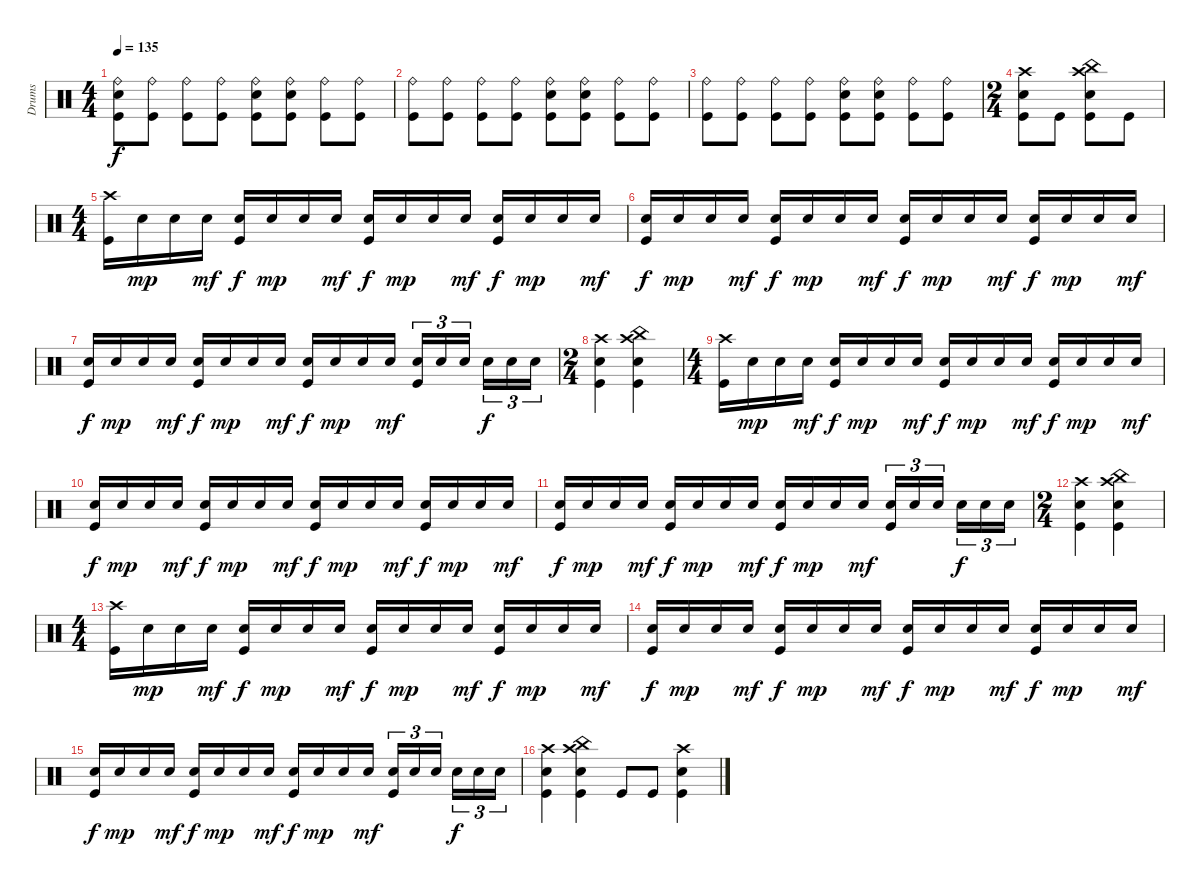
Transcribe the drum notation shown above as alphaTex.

\track ("Drums" "Drums") {instrument percussion}
\staff {score}
\articulation defaults
\ts (4 4)
\tempo 135
\clef neutral
\ks c
("Ride (bell)" "Electric Snare (hit)" "Kick (hit)").8{dy f} ("Ride (bell)" "Kick (hit)").8 ("Ride (bell)" "Kick (hit)").8 ("Ride (bell)" "Kick (hit)").8 ("Ride (bell)" "Electric Snare (hit)" "Kick (hit)").8 ("Ride (bell)" "Electric Snare (hit)" "Kick (hit)").8 ("Ride (bell)" "Kick (hit)").8 ("Ride (bell)" "Kick (hit)").8 |
("Ride (bell)" "Kick (hit)").8 ("Ride (bell)" "Kick (hit)").8 ("Ride (bell)" "Kick (hit)").8 ("Ride (bell)" "Kick (hit)").8 ("Ride (bell)" "Electric Snare (hit)" "Kick (hit)").8 ("Ride (bell)" "Electric Snare (hit)" "Kick (hit)").8 ("Ride (bell)" "Kick (hit)").8 ("Ride (bell)" "Kick (hit)").8 |
("Ride (bell)" "Kick (hit)").8 ("Ride (bell)" "Kick (hit)").8 ("Ride (bell)" "Kick (hit)").8 ("Ride (bell)" "Kick (hit)").8 ("Ride (bell)" "Electric Snare (hit)" "Kick (hit)").8 ("Ride (bell)" "Electric Snare (hit)" "Kick (hit)").8 ("Ride (bell)" "Kick (hit)").8 ("Ride (bell)" "Kick (hit)").8 |
\ts (2 4)
("Crash high (hit)" "Electric Snare (hit)" "Kick (hit)").8 "Kick (hit)".8 ("Crash high (hit)" "China (hit)" "Electric Snare (hit)" "Kick (hit)").8 "Kick (hit)".8 |
\ts (4 4)
("Crash high (hit)" "Kick (hit)").16 "Electric Snare (hit)".16{dy mp} "Electric Snare (hit)".16 "Electric Snare (hit)".16{dy mf} ("Electric Snare (hit)" "Kick (hit)").16{dy f} "Electric Snare (hit)".16{dy mp} "Electric Snare (hit)".16 "Electric Snare (hit)".16{dy mf} ("Electric Snare (hit)" "Kick (hit)").16{dy f} "Electric Snare (hit)".16{dy mp} "Electric Snare (hit)".16 "Electric Snare (hit)".16{dy mf} ("Electric Snare (hit)" "Kick (hit)").16{dy f} "Electric Snare (hit)".16{dy mp} "Electric Snare (hit)".16 "Electric Snare (hit)".16{dy mf} |
("Electric Snare (hit)" "Kick (hit)").16{dy f} "Electric Snare (hit)".16{dy mp} "Electric Snare (hit)".16 "Electric Snare (hit)".16{dy mf} ("Electric Snare (hit)" "Kick (hit)").16{dy f} "Electric Snare (hit)".16{dy mp} "Electric Snare (hit)".16 "Electric Snare (hit)".16{dy mf} ("Electric Snare (hit)" "Kick (hit)").16{dy f} "Electric Snare (hit)".16{dy mp} "Electric Snare (hit)".16 "Electric Snare (hit)".16{dy mf} ("Electric Snare (hit)" "Kick (hit)").16{dy f} "Electric Snare (hit)".16{dy mp} "Electric Snare (hit)".16 "Electric Snare (hit)".16{dy mf} |
("Electric Snare (hit)" "Kick (hit)").16{dy f} "Electric Snare (hit)".16{dy mp} "Electric Snare (hit)".16 "Electric Snare (hit)".16{dy mf} ("Electric Snare (hit)" "Kick (hit)").16{dy f} "Electric Snare (hit)".16{dy mp} "Electric Snare (hit)".16 "Electric Snare (hit)".16{dy mf} ("Electric Snare (hit)" "Kick (hit)").16{dy f} "Electric Snare (hit)".16{dy mp} "Electric Snare (hit)".16 "Electric Snare (hit)".16{dy mf} ("Electric Snare (hit)" "Kick (hit)").16{tu (3 2)} "Electric Snare (hit)".16{tu (3 2)} "Electric Snare (hit)".16{tu (3 2)} "Electric Snare (hit)".16{tu (3 2) dy f} "Electric Snare (hit)".16{tu (3 2)} "Electric Snare (hit)".16{tu (3 2)} |
\ts (2 4)
("Crash high (hit)" "Electric Snare (hit)" "Kick (hit)").4 ("Crash high (hit)" "China (hit)" "Electric Snare (hit)" "Kick (hit)").4 |
\ts (4 4)
("Crash high (hit)" "Kick (hit)").16 "Electric Snare (hit)".16{dy mp} "Electric Snare (hit)".16 "Electric Snare (hit)".16{dy mf} ("Electric Snare (hit)" "Kick (hit)").16{dy f} "Electric Snare (hit)".16{dy mp} "Electric Snare (hit)".16 "Electric Snare (hit)".16{dy mf} ("Electric Snare (hit)" "Kick (hit)").16{dy f} "Electric Snare (hit)".16{dy mp} "Electric Snare (hit)".16 "Electric Snare (hit)".16{dy mf} ("Electric Snare (hit)" "Kick (hit)").16{dy f} "Electric Snare (hit)".16{dy mp} "Electric Snare (hit)".16 "Electric Snare (hit)".16{dy mf} |
("Electric Snare (hit)" "Kick (hit)").16{dy f} "Electric Snare (hit)".16{dy mp} "Electric Snare (hit)".16 "Electric Snare (hit)".16{dy mf} ("Electric Snare (hit)" "Kick (hit)").16{dy f} "Electric Snare (hit)".16{dy mp} "Electric Snare (hit)".16 "Electric Snare (hit)".16{dy mf} ("Electric Snare (hit)" "Kick (hit)").16{dy f} "Electric Snare (hit)".16{dy mp} "Electric Snare (hit)".16 "Electric Snare (hit)".16{dy mf} ("Electric Snare (hit)" "Kick (hit)").16{dy f} "Electric Snare (hit)".16{dy mp} "Electric Snare (hit)".16 "Electric Snare (hit)".16{dy mf} |
("Electric Snare (hit)" "Kick (hit)").16{dy f} "Electric Snare (hit)".16{dy mp} "Electric Snare (hit)".16 "Electric Snare (hit)".16{dy mf} ("Electric Snare (hit)" "Kick (hit)").16{dy f} "Electric Snare (hit)".16{dy mp} "Electric Snare (hit)".16 "Electric Snare (hit)".16{dy mf} ("Electric Snare (hit)" "Kick (hit)").16{dy f} "Electric Snare (hit)".16{dy mp} "Electric Snare (hit)".16 "Electric Snare (hit)".16{dy mf} ("Electric Snare (hit)" "Kick (hit)").16{tu (3 2)} "Electric Snare (hit)".16{tu (3 2)} "Electric Snare (hit)".16{tu (3 2)} "Electric Snare (hit)".16{tu (3 2) dy f} "Electric Snare (hit)".16{tu (3 2)} "Electric Snare (hit)".16{tu (3 2)} |
\ts (2 4)
("Crash high (hit)" "Electric Snare (hit)" "Kick (hit)").4 ("Crash high (hit)" "China (hit)" "Electric Snare (hit)" "Kick (hit)").4 |
\ts (4 4)
("Crash high (hit)" "Kick (hit)").16 "Electric Snare (hit)".16{dy mp} "Electric Snare (hit)".16 "Electric Snare (hit)".16{dy mf} ("Electric Snare (hit)" "Kick (hit)").16{dy f} "Electric Snare (hit)".16{dy mp} "Electric Snare (hit)".16 "Electric Snare (hit)".16{dy mf} ("Electric Snare (hit)" "Kick (hit)").16{dy f} "Electric Snare (hit)".16{dy mp} "Electric Snare (hit)".16 "Electric Snare (hit)".16{dy mf} ("Electric Snare (hit)" "Kick (hit)").16{dy f} "Electric Snare (hit)".16{dy mp} "Electric Snare (hit)".16 "Electric Snare (hit)".16{dy mf} |
("Electric Snare (hit)" "Kick (hit)").16{dy f} "Electric Snare (hit)".16{dy mp} "Electric Snare (hit)".16 "Electric Snare (hit)".16{dy mf} ("Electric Snare (hit)" "Kick (hit)").16{dy f} "Electric Snare (hit)".16{dy mp} "Electric Snare (hit)".16 "Electric Snare (hit)".16{dy mf} ("Electric Snare (hit)" "Kick (hit)").16{dy f} "Electric Snare (hit)".16{dy mp} "Electric Snare (hit)".16 "Electric Snare (hit)".16{dy mf} ("Electric Snare (hit)" "Kick (hit)").16{dy f} "Electric Snare (hit)".16{dy mp} "Electric Snare (hit)".16 "Electric Snare (hit)".16{dy mf} |
("Electric Snare (hit)" "Kick (hit)").16{dy f} "Electric Snare (hit)".16{dy mp} "Electric Snare (hit)".16 "Electric Snare (hit)".16{dy mf} ("Electric Snare (hit)" "Kick (hit)").16{dy f} "Electric Snare (hit)".16{dy mp} "Electric Snare (hit)".16 "Electric Snare (hit)".16{dy mf} ("Electric Snare (hit)" "Kick (hit)").16{dy f} "Electric Snare (hit)".16{dy mp} "Electric Snare (hit)".16 "Electric Snare (hit)".16{dy mf} ("Electric Snare (hit)" "Kick (hit)").16{tu (3 2)} "Electric Snare (hit)".16{tu (3 2)} "Electric Snare (hit)".16{tu (3 2)} "Electric Snare (hit)".16{tu (3 2) dy f} "Electric Snare (hit)".16{tu (3 2)} "Electric Snare (hit)".16{tu (3 2)} |
("Crash high (hit)" "Electric Snare (hit)" "Kick (hit)").4 ("Crash high (hit)" "China (hit)" "Electric Snare (hit)" "Kick (hit)").4 "Kick (hit)".8 "Kick (hit)".8 ("Crash high (hit)" "Electric Snare (hit)" "Kick (hit)").4
